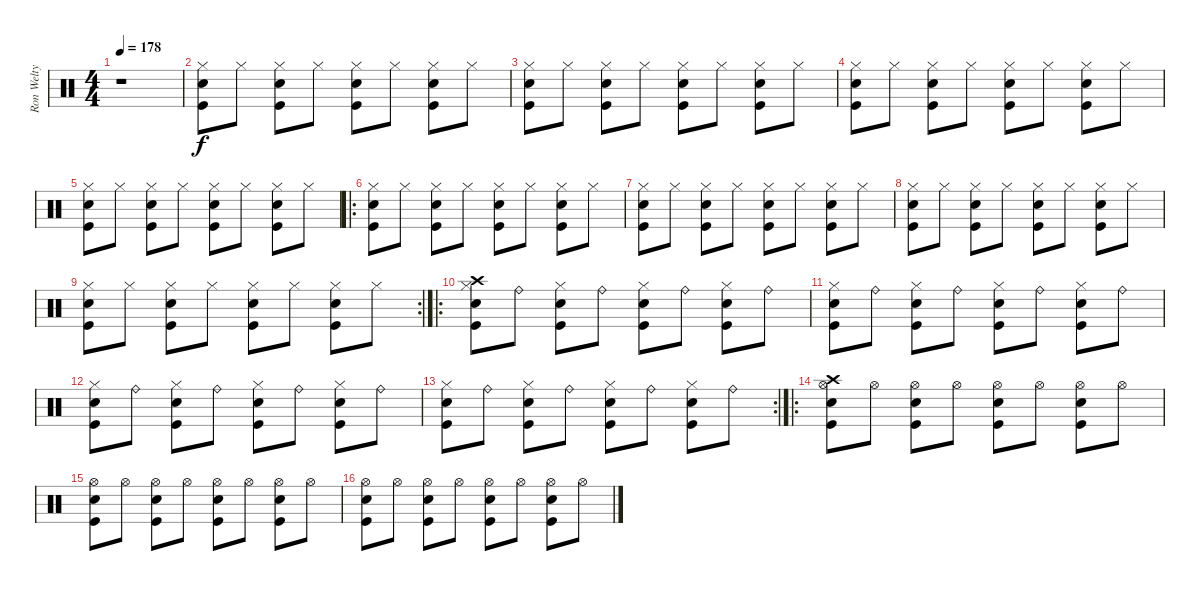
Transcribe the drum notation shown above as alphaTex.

\track ("Ron Welty" "Ron Welty") {instrument percussion}
\staff {score}
\articulation defaults
\ts (4 4)
\tempo 178
\clef neutral
\ks c
r.1{dy f} |
("Electric Snare (hit)" "Hi-Hat (closed)" "Kick (hit)").8 "Hi-Hat (closed)".8 ("Electric Snare (hit)" "Hi-Hat (closed)" "Kick (hit)").8 "Hi-Hat (closed)".8 ("Electric Snare (hit)" "Hi-Hat (closed)" "Kick (hit)").8 "Hi-Hat (closed)".8 ("Electric Snare (hit)" "Hi-Hat (closed)" "Kick (hit)").8 "Hi-Hat (closed)".8 |
("Electric Snare (hit)" "Hi-Hat (closed)" "Kick (hit)").8 "Hi-Hat (closed)".8 ("Electric Snare (hit)" "Hi-Hat (closed)" "Kick (hit)").8 "Hi-Hat (closed)".8 ("Electric Snare (hit)" "Hi-Hat (closed)" "Kick (hit)").8 "Hi-Hat (closed)".8 ("Electric Snare (hit)" "Hi-Hat (closed)" "Kick (hit)").8 "Hi-Hat (closed)".8 |
("Electric Snare (hit)" "Hi-Hat (closed)" "Kick (hit)").8 "Hi-Hat (closed)".8 ("Electric Snare (hit)" "Hi-Hat (closed)" "Kick (hit)").8 "Hi-Hat (closed)".8 ("Electric Snare (hit)" "Hi-Hat (closed)" "Kick (hit)").8 "Hi-Hat (closed)".8 ("Electric Snare (hit)" "Hi-Hat (closed)" "Kick (hit)").8 "Hi-Hat (closed)".8 |
("Electric Snare (hit)" "Hi-Hat (closed)" "Kick (hit)").8 "Hi-Hat (closed)".8 ("Electric Snare (hit)" "Hi-Hat (closed)" "Kick (hit)").8 "Hi-Hat (closed)".8 ("Electric Snare (hit)" "Hi-Hat (closed)" "Kick (hit)").8 "Hi-Hat (closed)".8 ("Electric Snare (hit)" "Hi-Hat (closed)" "Kick (hit)").8 "Hi-Hat (closed)".8 |
\ro
("Electric Snare (hit)" "Hi-Hat (closed)" "Kick (hit)").8 "Hi-Hat (closed)".8 ("Electric Snare (hit)" "Hi-Hat (closed)" "Kick (hit)").8 "Hi-Hat (closed)".8 ("Electric Snare (hit)" "Hi-Hat (closed)" "Kick (hit)").8 "Hi-Hat (closed)".8 ("Electric Snare (hit)" "Hi-Hat (closed)" "Kick (hit)").8 "Hi-Hat (closed)".8 |
("Electric Snare (hit)" "Hi-Hat (closed)" "Kick (hit)").8 "Hi-Hat (closed)".8 ("Electric Snare (hit)" "Hi-Hat (closed)" "Kick (hit)").8 "Hi-Hat (closed)".8 ("Electric Snare (hit)" "Hi-Hat (closed)" "Kick (hit)").8 "Hi-Hat (closed)".8 ("Electric Snare (hit)" "Hi-Hat (closed)" "Kick (hit)").8 "Hi-Hat (closed)".8 |
("Electric Snare (hit)" "Hi-Hat (closed)" "Kick (hit)").8 "Hi-Hat (closed)".8 ("Electric Snare (hit)" "Hi-Hat (closed)" "Kick (hit)").8 "Hi-Hat (closed)".8 ("Electric Snare (hit)" "Hi-Hat (closed)" "Kick (hit)").8 "Hi-Hat (closed)".8 ("Electric Snare (hit)" "Hi-Hat (closed)" "Kick (hit)").8 "Hi-Hat (closed)".8 |
\rc 2
("Electric Snare (hit)" "Hi-Hat (closed)" "Kick (hit)").8 "Hi-Hat (closed)".8 ("Electric Snare (hit)" "Hi-Hat (closed)" "Kick (hit)").8 "Hi-Hat (closed)".8 ("Electric Snare (hit)" "Hi-Hat (closed)" "Kick (hit)").8 "Hi-Hat (closed)".8 ("Electric Snare (hit)" "Hi-Hat (closed)" "Kick (hit)").8 "Hi-Hat (closed)".8 |
\ro
("Crash high (hit)" "Electric Snare (hit)" "Hi-Hat (closed)" "Kick (hit)").8 "Ride (bell)".8 ("Electric Snare (hit)" "Hi-Hat (closed)" "Kick (hit)").8 "Ride (bell)".8 ("Electric Snare (hit)" "Hi-Hat (closed)" "Kick (hit)").8 "Ride (bell)".8 ("Electric Snare (hit)" "Hi-Hat (closed)" "Kick (hit)").8 "Ride (bell)".8 |
("Electric Snare (hit)" "Hi-Hat (closed)" "Kick (hit)").8 "Ride (bell)".8 ("Electric Snare (hit)" "Hi-Hat (closed)" "Kick (hit)").8 "Ride (bell)".8 ("Electric Snare (hit)" "Hi-Hat (closed)" "Kick (hit)").8 "Ride (bell)".8 ("Electric Snare (hit)" "Hi-Hat (closed)" "Kick (hit)").8 "Ride (bell)".8 |
("Electric Snare (hit)" "Hi-Hat (closed)" "Kick (hit)").8 "Ride (bell)".8 ("Electric Snare (hit)" "Hi-Hat (closed)" "Kick (hit)").8 "Ride (bell)".8 ("Electric Snare (hit)" "Hi-Hat (closed)" "Kick (hit)").8 "Ride (bell)".8 ("Electric Snare (hit)" "Hi-Hat (closed)" "Kick (hit)").8 "Ride (bell)".8 |
\rc 2
("Electric Snare (hit)" "Hi-Hat (closed)" "Kick (hit)").8 "Ride (bell)".8 ("Electric Snare (hit)" "Hi-Hat (closed)" "Kick (hit)").8 "Ride (bell)".8 ("Electric Snare (hit)" "Hi-Hat (closed)" "Kick (hit)").8 "Ride (bell)".8 ("Electric Snare (hit)" "Hi-Hat (closed)" "Kick (hit)").8 "Ride (bell)".8 |
\ro
("Crash high (hit)" "Electric Snare (hit)" "Hi-Hat (open)" "Kick (hit)").8 "Hi-Hat (open)".8 ("Electric Snare (hit)" "Hi-Hat (open)" "Kick (hit)").8 "Hi-Hat (open)".8 ("Electric Snare (hit)" "Hi-Hat (open)" "Kick (hit)").8 "Hi-Hat (open)".8 ("Electric Snare (hit)" "Hi-Hat (open)" "Kick (hit)").8 "Hi-Hat (open)".8 |
("Electric Snare (hit)" "Hi-Hat (open)" "Kick (hit)").8 "Hi-Hat (open)".8 ("Electric Snare (hit)" "Hi-Hat (open)" "Kick (hit)").8 "Hi-Hat (open)".8 ("Electric Snare (hit)" "Hi-Hat (open)" "Kick (hit)").8 "Hi-Hat (open)".8 ("Electric Snare (hit)" "Hi-Hat (open)" "Kick (hit)").8 "Hi-Hat (open)".8 |
("Electric Snare (hit)" "Hi-Hat (open)" "Kick (hit)").8 "Hi-Hat (open)".8 ("Electric Snare (hit)" "Hi-Hat (open)" "Kick (hit)").8 "Hi-Hat (open)".8 ("Electric Snare (hit)" "Hi-Hat (open)" "Kick (hit)").8 "Hi-Hat (open)".8 ("Electric Snare (hit)" "Hi-Hat (open)" "Kick (hit)").8 "Hi-Hat (open)".8
